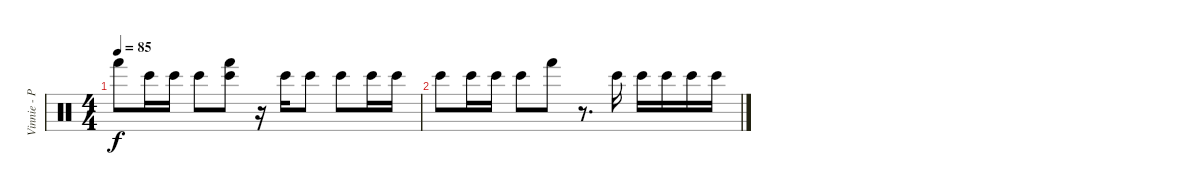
\track ("Vinnie - Percusion" "Vinnie - P") {instrument percussion}
\staff {score}
\articulation defaults
\ts (4 4)
\tempo 85
\clef neutral
\ks c "Hand (hit)".8{dy f volume 0} "Bongo High (hit)".16 "Bongo High (hit)".16 "Bongo High (hit)".8
("Bongo High (hit)" "Hand (hit)").8 r.16 "Bongo High (hit)".16 "Bongo High (hit)".8 "Bongo High (hit)".8 "Bongo High (hit)".16 "Bongo High (hit)".16 |
"Bongo High (hit)".8 "Bongo High (hit)".16 "Bongo High (hit)".16 "Bongo High (hit)".8 "Hand (hit)".8 r.8{d} "Bongo High (hit)".16 "Bongo High (hit)".16 "Bongo High (hit)".16 "Bongo High (hit)".16 "Bongo High (hit)".16
